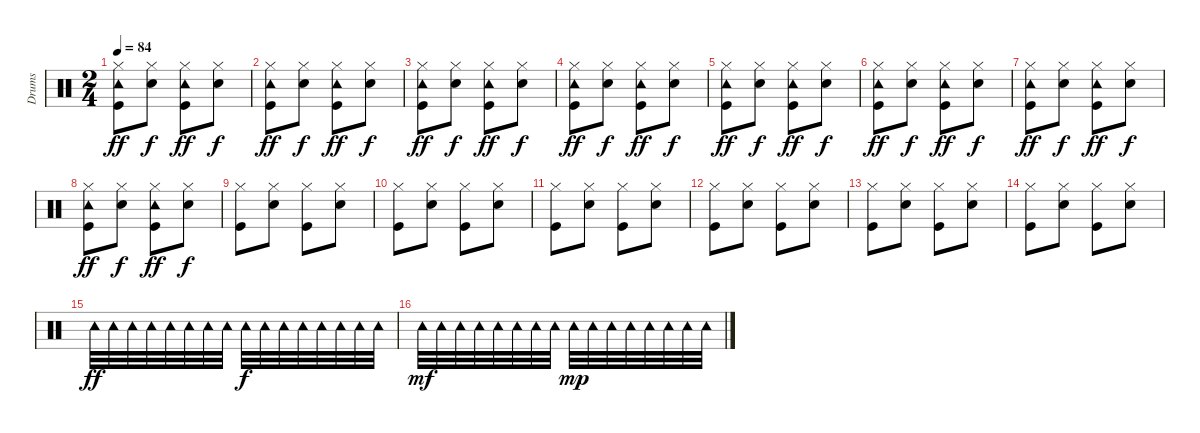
\track ("Drums" "Drums") {instrument percussion}
\staff {score}
\articulation defaults
\ts (2 4)
\tempo 84
\clef neutral
\ks c
("Tambourine (hit)" "Hi-Hat (closed)" "Kick (hit)").8{dy ff} ("Hi-Hat (closed)" "Electric Snare (hit)").8{dy f} ("Tambourine (hit)" "Hi-Hat (closed)" "Kick (hit)").8{dy ff} ("Hi-Hat (closed)" "Electric Snare (hit)").8{dy f} |
("Tambourine (hit)" "Hi-Hat (closed)" "Kick (hit)").8{dy ff} ("Hi-Hat (closed)" "Electric Snare (hit)").8{dy f} ("Tambourine (hit)" "Hi-Hat (closed)" "Kick (hit)").8{dy ff} ("Hi-Hat (closed)" "Electric Snare (hit)").8{dy f} |
("Tambourine (hit)" "Hi-Hat (closed)" "Kick (hit)").8{dy ff} ("Hi-Hat (closed)" "Electric Snare (hit)").8{dy f} ("Tambourine (hit)" "Hi-Hat (closed)" "Kick (hit)").8{dy ff} ("Hi-Hat (closed)" "Electric Snare (hit)").8{dy f} |
("Tambourine (hit)" "Hi-Hat (closed)" "Kick (hit)").8{dy ff} ("Hi-Hat (closed)" "Electric Snare (hit)").8{dy f} ("Tambourine (hit)" "Hi-Hat (closed)" "Kick (hit)").8{dy ff} ("Hi-Hat (closed)" "Electric Snare (hit)").8{dy f} |
("Tambourine (hit)" "Hi-Hat (closed)" "Kick (hit)").8{dy ff} ("Hi-Hat (closed)" "Electric Snare (hit)").8{dy f} ("Tambourine (hit)" "Hi-Hat (closed)" "Kick (hit)").8{dy ff} ("Hi-Hat (closed)" "Electric Snare (hit)").8{dy f} |
("Tambourine (hit)" "Hi-Hat (closed)" "Kick (hit)").8{dy ff} ("Hi-Hat (closed)" "Electric Snare (hit)").8{dy f} ("Tambourine (hit)" "Hi-Hat (closed)" "Kick (hit)").8{dy ff} ("Hi-Hat (closed)" "Electric Snare (hit)").8{dy f} |
("Tambourine (hit)" "Hi-Hat (closed)" "Kick (hit)").8{dy ff} ("Hi-Hat (closed)" "Electric Snare (hit)").8{dy f} ("Tambourine (hit)" "Hi-Hat (closed)" "Kick (hit)").8{dy ff} ("Hi-Hat (closed)" "Electric Snare (hit)").8{dy f} |
("Tambourine (hit)" "Hi-Hat (closed)" "Kick (hit)").8{dy ff} ("Hi-Hat (closed)" "Electric Snare (hit)").8{dy f} ("Tambourine (hit)" "Hi-Hat (closed)" "Kick (hit)").8{dy ff} ("Hi-Hat (closed)" "Electric Snare (hit)").8{dy f} |
("Hi-Hat (closed)" "Kick (hit)").8 ("Hi-Hat (closed)" "Electric Snare (hit)").8 ("Hi-Hat (closed)" "Kick (hit)").8 ("Hi-Hat (closed)" "Electric Snare (hit)").8 |
("Hi-Hat (closed)" "Kick (hit)").8 ("Hi-Hat (closed)" "Electric Snare (hit)").8 ("Hi-Hat (closed)" "Kick (hit)").8 ("Hi-Hat (closed)" "Electric Snare (hit)").8 |
("Hi-Hat (closed)" "Kick (hit)").8 ("Hi-Hat (closed)" "Electric Snare (hit)").8 ("Hi-Hat (closed)" "Kick (hit)").8 ("Hi-Hat (closed)" "Electric Snare (hit)").8 |
("Hi-Hat (closed)" "Kick (hit)").8 ("Hi-Hat (closed)" "Electric Snare (hit)").8 ("Hi-Hat (closed)" "Kick (hit)").8 ("Hi-Hat (closed)" "Electric Snare (hit)").8 |
("Hi-Hat (closed)" "Kick (hit)").8 ("Hi-Hat (closed)" "Electric Snare (hit)").8 ("Hi-Hat (closed)" "Kick (hit)").8 ("Hi-Hat (closed)" "Electric Snare (hit)").8 |
("Hi-Hat (closed)" "Kick (hit)").8 ("Hi-Hat (closed)" "Electric Snare (hit)").8 ("Hi-Hat (closed)" "Kick (hit)").8 ("Hi-Hat (closed)" "Electric Snare (hit)").8 |
"Tambourine (hit)".32{dy ff} "Tambourine (hit)".32 "Tambourine (hit)".32 "Tambourine (hit)".32 "Tambourine (hit)".32 "Tambourine (hit)".32 "Tambourine (hit)".32 "Tambourine (hit)".32 "Tambourine (hit)".32{dy f} "Tambourine (hit)".32 "Tambourine (hit)".32 "Tambourine (hit)".32 "Tambourine (hit)".32 "Tambourine (hit)".32 "Tambourine (hit)".32 "Tambourine (hit)".32 |
"Tambourine (hit)".32{dy mf} "Tambourine (hit)".32 "Tambourine (hit)".32 "Tambourine (hit)".32 "Tambourine (hit)".32 "Tambourine (hit)".32 "Tambourine (hit)".32 "Tambourine (hit)".32 "Tambourine (hit)".32{dy mp} "Tambourine (hit)".32 "Tambourine (hit)".32 "Tambourine (hit)".32 "Tambourine (hit)".32 "Tambourine (hit)".32 "Tambourine (hit)".32 "Tambourine (hit)".32
